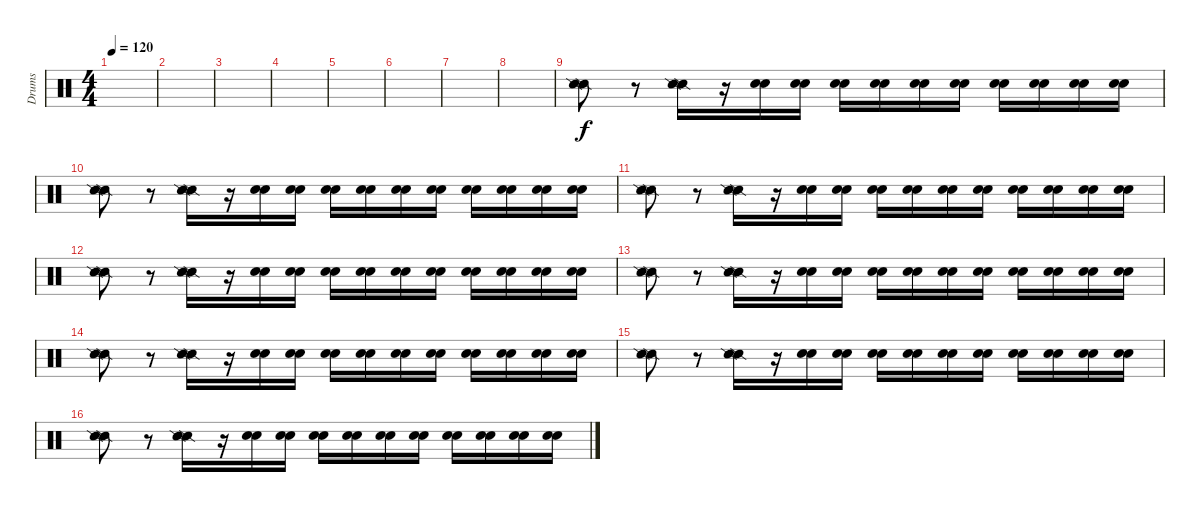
\track ("Drums" "Drums") {instrument percussion}
\staff {score}
\articulation defaults
\ts (4 4)
\tempo 120
\clef neutral
\ks c
|
|
|
|
|
|
|
|
("Snare (side stick) 2" "Snare (side stick) 2").8 r.8 ("Snare (side stick) 2" "Snare (side stick) 2").16 r.16 ("Snare (hit) 2" "Electric Snare (hit)").16 ("Snare (hit) 2" "Electric Snare (hit)").16 ("Snare (hit) 2" "Electric Snare (hit)").16 ("Snare (hit) 2" "Electric Snare (hit)").16 ("Snare (hit) 2" "Electric Snare (hit)").16 ("Snare (hit) 2" "Electric Snare (hit)").16 ("Snare (hit) 2" "Electric Snare (hit)").16 ("Snare (hit) 2" "Electric Snare (hit)").16 ("Snare (hit) 2" "Electric Snare (hit)").16 ("Snare (hit) 2" "Electric Snare (hit)").16 |
("Snare (side stick) 2" "Snare (side stick) 2").8 r.8 ("Snare (side stick) 2" "Snare (side stick) 2").16 r.16 ("Snare (hit) 2" "Electric Snare (hit)").16 ("Snare (hit) 2" "Electric Snare (hit)").16 ("Snare (hit) 2" "Electric Snare (hit)").16 ("Snare (hit) 2" "Electric Snare (hit)").16 ("Snare (hit) 2" "Electric Snare (hit)").16 ("Snare (hit) 2" "Electric Snare (hit)").16 ("Snare (hit) 2" "Electric Snare (hit)").16 ("Snare (hit) 2" "Electric Snare (hit)").16 ("Snare (hit) 2" "Electric Snare (hit)").16 ("Snare (hit) 2" "Electric Snare (hit)").16 |
("Snare (side stick) 2" "Snare (side stick) 2").8 r.8 ("Snare (side stick) 2" "Snare (side stick) 2").16 r.16 ("Snare (hit) 2" "Electric Snare (hit)").16 ("Snare (hit) 2" "Electric Snare (hit)").16 ("Snare (hit) 2" "Electric Snare (hit)").16 ("Snare (hit) 2" "Electric Snare (hit)").16 ("Snare (hit) 2" "Electric Snare (hit)").16 ("Snare (hit) 2" "Electric Snare (hit)").16 ("Snare (hit) 2" "Electric Snare (hit)").16 ("Snare (hit) 2" "Electric Snare (hit)").16 ("Snare (hit) 2" "Electric Snare (hit)").16 ("Snare (hit) 2" "Electric Snare (hit)").16 |
("Snare (side stick) 2" "Snare (side stick) 2").8 r.8 ("Snare (side stick) 2" "Snare (side stick) 2").16 r.16 ("Snare (hit) 2" "Electric Snare (hit)").16 ("Snare (hit) 2" "Electric Snare (hit)").16 ("Snare (hit) 2" "Electric Snare (hit)").16 ("Snare (hit) 2" "Electric Snare (hit)").16 ("Snare (hit) 2" "Electric Snare (hit)").16 ("Snare (hit) 2" "Electric Snare (hit)").16 ("Snare (hit) 2" "Electric Snare (hit)").16 ("Snare (hit) 2" "Electric Snare (hit)").16 ("Snare (hit) 2" "Electric Snare (hit)").16 ("Snare (hit) 2" "Electric Snare (hit)").16 |
("Snare (side stick) 2" "Snare (side stick) 2").8 r.8 ("Snare (side stick) 2" "Snare (side stick) 2").16 r.16 ("Snare (hit) 2" "Electric Snare (hit)").16 ("Snare (hit) 2" "Electric Snare (hit)").16 ("Snare (hit) 2" "Electric Snare (hit)").16 ("Snare (hit) 2" "Electric Snare (hit)").16 ("Snare (hit) 2" "Electric Snare (hit)").16 ("Snare (hit) 2" "Electric Snare (hit)").16 ("Snare (hit) 2" "Electric Snare (hit)").16 ("Snare (hit) 2" "Electric Snare (hit)").16 ("Snare (hit) 2" "Electric Snare (hit)").16 ("Snare (hit) 2" "Electric Snare (hit)").16 |
("Snare (side stick) 2" "Snare (side stick) 2").8 r.8 ("Snare (side stick) 2" "Snare (side stick) 2").16 r.16 ("Snare (hit) 2" "Electric Snare (hit)").16 ("Snare (hit) 2" "Electric Snare (hit)").16 ("Snare (hit) 2" "Electric Snare (hit)").16 ("Snare (hit) 2" "Electric Snare (hit)").16 ("Snare (hit) 2" "Electric Snare (hit)").16 ("Snare (hit) 2" "Electric Snare (hit)").16 ("Snare (hit) 2" "Electric Snare (hit)").16 ("Snare (hit) 2" "Electric Snare (hit)").16 ("Snare (hit) 2" "Electric Snare (hit)").16 ("Snare (hit) 2" "Electric Snare (hit)").16 |
("Snare (side stick) 2" "Snare (side stick) 2").8 r.8 ("Snare (side stick) 2" "Snare (side stick) 2").16 r.16 ("Snare (hit) 2" "Electric Snare (hit)").16 ("Snare (hit) 2" "Electric Snare (hit)").16 ("Snare (hit) 2" "Electric Snare (hit)").16 ("Snare (hit) 2" "Electric Snare (hit)").16 ("Snare (hit) 2" "Electric Snare (hit)").16 ("Snare (hit) 2" "Electric Snare (hit)").16 ("Snare (hit) 2" "Electric Snare (hit)").16 ("Snare (hit) 2" "Electric Snare (hit)").16 ("Snare (hit) 2" "Electric Snare (hit)").16 ("Snare (hit) 2" "Electric Snare (hit)").16 |
("Snare (side stick) 2" "Snare (side stick) 2").8 r.8 ("Snare (side stick) 2" "Snare (side stick) 2").16 r.16 ("Snare (hit) 2" "Electric Snare (hit)").16 ("Snare (hit) 2" "Electric Snare (hit)").16 ("Snare (hit) 2" "Electric Snare (hit)").16 ("Snare (hit) 2" "Electric Snare (hit)").16 ("Snare (hit) 2" "Electric Snare (hit)").16 ("Snare (hit) 2" "Electric Snare (hit)").16 ("Snare (hit) 2" "Electric Snare (hit)").16 ("Snare (hit) 2" "Electric Snare (hit)").16 ("Snare (hit) 2" "Electric Snare (hit)").16 ("Snare (hit) 2" "Electric Snare (hit)").16
